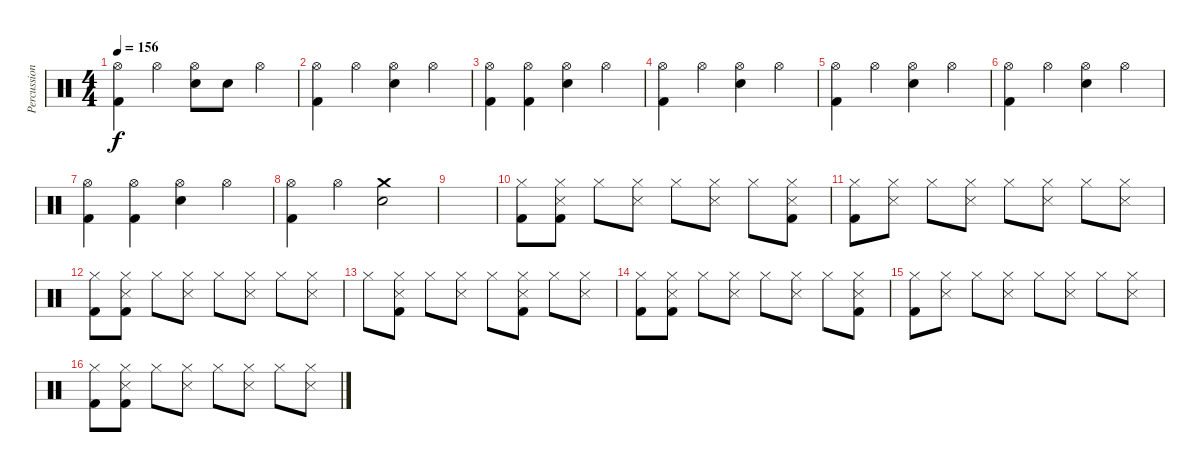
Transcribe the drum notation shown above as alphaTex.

\track ("Percussions" "Percussion") {instrument percussion}
\staff {score}
\articulation defaults
\ts (4 4)
\tempo 156
\clef neutral
\ks c
("Hi-Hat (open)" "Kick (hit) 2").4{dy f} "Hi-Hat (open)".4 ("Hi-Hat (open)" "Electric Snare (hit)").8 "Electric Snare (hit)".8 "Hi-Hat (open)".4 |
("Hi-Hat (open)" "Kick (hit) 2").4 "Hi-Hat (open)".4 ("Hi-Hat (open)" "Electric Snare (hit)").4 "Hi-Hat (open)".4 |
("Hi-Hat (open)" "Kick (hit) 2").4 ("Hi-Hat (open)" "Kick (hit) 2").4 ("Hi-Hat (open)" "Electric Snare (hit)").4 "Hi-Hat (open)".4 |
("Hi-Hat (open)" "Kick (hit) 2").4 "Hi-Hat (open)".4 ("Hi-Hat (open)" "Electric Snare (hit)").4 "Hi-Hat (open)".4 |
("Hi-Hat (open)" "Kick (hit) 2").4 "Hi-Hat (open)".4 ("Hi-Hat (open)" "Electric Snare (hit)").4 "Hi-Hat (open)".4 |
("Hi-Hat (open)" "Kick (hit) 2").4 "Hi-Hat (open)".4 ("Hi-Hat (open)" "Electric Snare (hit)").4 "Hi-Hat (open)".4 |
("Hi-Hat (open)" "Kick (hit) 2").4 ("Hi-Hat (open)" "Kick (hit) 2").4 ("Hi-Hat (open)" "Electric Snare (hit)").4 "Hi-Hat (open)".4 |
("Hi-Hat (open)" "Kick (hit) 2").4 "Hi-Hat (open)".4 ("Crash medium (hit)" "Electric Snare (hit)").2 |
|
("Hi-Hat (closed)" "Kick (hit) 2").8 ("Hi-Hat (closed)" "Snare (side stick) 3" "Kick (hit) 2").8 "Hi-Hat (closed)".8 ("Hi-Hat (closed)" "Snare (side stick) 3").8 "Hi-Hat (closed)".8 ("Hi-Hat (closed)" "Snare (side stick) 3").8 "Hi-Hat (closed)".8 ("Hi-Hat (closed)" "Snare (side stick) 3" "Kick (hit) 2").8 |
("Hi-Hat (closed)" "Kick (hit) 2").8 ("Hi-Hat (closed)" "Snare (side stick) 3").8 "Hi-Hat (closed)".8 ("Hi-Hat (closed)" "Snare (side stick) 3").8 "Hi-Hat (closed)".8 ("Hi-Hat (closed)" "Snare (side stick) 3").8 "Hi-Hat (closed)".8 ("Hi-Hat (closed)" "Snare (side stick) 3").8 |
("Hi-Hat (closed)" "Kick (hit) 2").8 ("Hi-Hat (closed)" "Snare (side stick) 3" "Kick (hit) 2").8 "Hi-Hat (closed)".8 ("Hi-Hat (closed)" "Snare (side stick) 3").8 "Hi-Hat (closed)".8 ("Hi-Hat (closed)" "Snare (side stick) 3").8 "Hi-Hat (closed)".8 ("Hi-Hat (closed)" "Snare (side stick) 3").8 |
"Hi-Hat (closed)".8 ("Hi-Hat (closed)" "Snare (side stick) 3" "Kick (hit) 2").8 "Hi-Hat (closed)".8 ("Hi-Hat (closed)" "Snare (side stick) 3").8 "Hi-Hat (closed)".8 ("Hi-Hat (closed)" "Snare (side stick) 3" "Kick (hit) 2").8 "Hi-Hat (closed)".8 ("Hi-Hat (closed)" "Snare (side stick) 3").8 |
("Hi-Hat (closed)" "Kick (hit) 2").8 ("Hi-Hat (closed)" "Snare (side stick) 3" "Kick (hit) 2").8 "Hi-Hat (closed)".8 ("Hi-Hat (closed)" "Snare (side stick) 3").8 "Hi-Hat (closed)".8 ("Hi-Hat (closed)" "Snare (side stick) 3").8 "Hi-Hat (closed)".8 ("Hi-Hat (closed)" "Snare (side stick) 3" "Kick (hit) 2").8 |
("Hi-Hat (closed)" "Kick (hit) 2").8 ("Hi-Hat (closed)" "Snare (side stick) 3").8 "Hi-Hat (closed)".8 ("Hi-Hat (closed)" "Snare (side stick) 3").8 "Hi-Hat (closed)".8 ("Hi-Hat (closed)" "Snare (side stick) 3").8 "Hi-Hat (closed)".8 ("Hi-Hat (closed)" "Snare (side stick) 3").8 |
("Hi-Hat (closed)" "Kick (hit) 2").8 ("Hi-Hat (closed)" "Snare (side stick) 3" "Kick (hit) 2").8 "Hi-Hat (closed)".8 ("Hi-Hat (closed)" "Snare (side stick) 3").8 "Hi-Hat (closed)".8 ("Hi-Hat (closed)" "Snare (side stick) 3").8 "Hi-Hat (closed)".8 ("Hi-Hat (closed)" "Snare (side stick) 3").8
